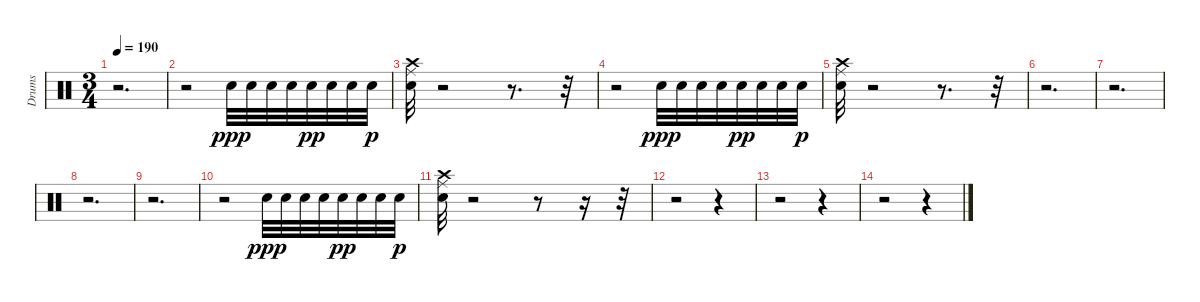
\track ("Drums" "Drums") {instrument percussion}
\staff {score}
\articulation defaults
\ts (3 4)
\tempo 190
\clef neutral
\ks c
r.2{d dy p} |
r.2 "Electric Snare (hit)".32{dy ppp} "Electric Snare (hit)".32 "Electric Snare (hit)".32 "Electric Snare (hit)".32 "Electric Snare (hit)".32{dy pp} "Electric Snare (hit)".32 "Electric Snare (hit)".32 "Electric Snare (hit)".32{dy p} |
("Crash high (hit)" "Ride (middle)" "Electric Snare (hit)").32 r.2 r.8{d} r.32 |
r.2 "Electric Snare (hit)".32{dy ppp} "Electric Snare (hit)".32 "Electric Snare (hit)".32 "Electric Snare (hit)".32 "Electric Snare (hit)".32{dy pp} "Electric Snare (hit)".32 "Electric Snare (hit)".32 "Electric Snare (hit)".32{dy p} |
("Crash high (hit)" "Ride (middle)" "Electric Snare (hit)").32 r.2 r.8{d} r.32 |
r.2{d} |
r.2{d} |
r.2{d} |
r.2{d} |
r.2 "Electric Snare (hit)".32{dy ppp} "Electric Snare (hit)".32 "Electric Snare (hit)".32 "Electric Snare (hit)".32 "Electric Snare (hit)".32{dy pp} "Electric Snare (hit)".32 "Electric Snare (hit)".32 "Electric Snare (hit)".32{dy p} |
("Crash high (hit)" "Ride (middle)" "Electric Snare (hit)").32 r.2 r.8 r.16 r.32 |
r.2 r.4 |
r.2 r.4 |
r.2 r.4
